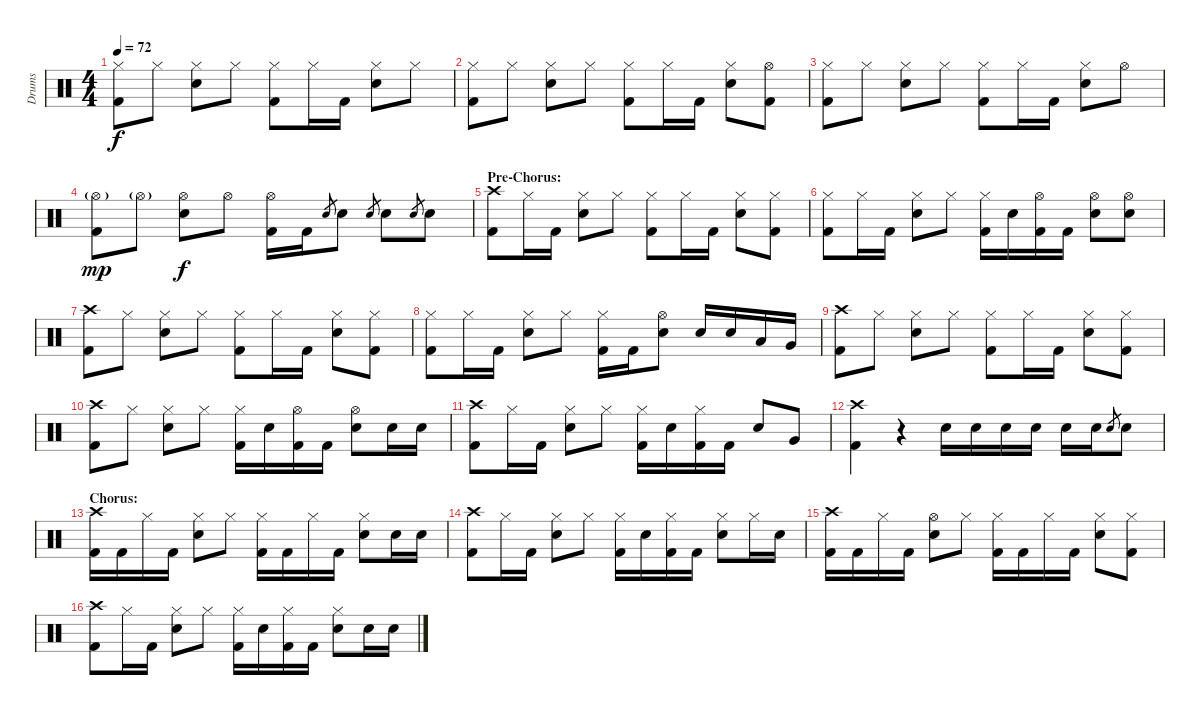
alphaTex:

\track ("Drums" "Drums") {instrument percussion}
\staff {score}
\articulation defaults
\ts (4 4)
\tempo 72
\clef neutral
\ks c
("Hi-Hat (closed)" "Kick (hit) 2").8{dy f} "Hi-Hat (closed)".8 ("Hi-Hat (closed)" "Electric Snare (hit)").8 "Hi-Hat (closed)".8 ("Hi-Hat (closed)" "Kick (hit) 2").8 "Hi-Hat (closed)".16 "Kick (hit) 2".16 ("Hi-Hat (closed)" "Electric Snare (hit)").8 "Hi-Hat (closed)".8 |
("Hi-Hat (closed)" "Kick (hit) 2").8 "Hi-Hat (closed)".8 ("Hi-Hat (closed)" "Electric Snare (hit)").8 "Hi-Hat (closed)".8 ("Hi-Hat (closed)" "Kick (hit) 2").8 "Hi-Hat (closed)".16 "Kick (hit) 2".16 ("Hi-Hat (closed)" "Electric Snare (hit)").8 ("Hi-Hat (open)" "Kick (hit) 2").8 |
("Hi-Hat (closed)" "Kick (hit) 2").8 "Hi-Hat (closed)".8 ("Hi-Hat (closed)" "Electric Snare (hit)").8 "Hi-Hat (closed)".8 ("Hi-Hat (closed)" "Kick (hit) 2").8 "Hi-Hat (closed)".16 "Kick (hit) 2".16 ("Hi-Hat (closed)" "Electric Snare (hit)").8 "Hi-Hat (open)".8 |
("Hi-Hat (open)"{g} "Kick (hit) 2").8{dy mp} "Hi-Hat (open)"{g}.8 ("Hi-Hat (open)" "Electric Snare (hit)").8{dy f} "Hi-Hat (open)".8 ("Hi-Hat (open)" "Kick (hit) 2").16 "Kick (hit) 2".16 "Electric Snare (hit)".8{gr} "Electric Snare (hit)".8 "Electric Snare (hit)".8{gr} "Electric Snare (hit)".8 "Electric Snare (hit)".8{gr} "Electric Snare (hit)".8 |
\section ("" "Pre-Chorus:")
("Crash high (hit)" "Kick (hit) 2").8 "Hi-Hat (closed)".16 "Kick (hit) 2".16 ("Hi-Hat (closed)" "Electric Snare (hit)").8 "Hi-Hat (closed)".8 ("Hi-Hat (closed)" "Kick (hit) 2").8 "Hi-Hat (closed)".16 "Kick (hit) 2".16 ("Hi-Hat (closed)" "Electric Snare (hit)").8 ("Hi-Hat (closed)" "Kick (hit) 2").8 |
("Hi-Hat (closed)" "Kick (hit) 2").8 "Hi-Hat (closed)".16 "Kick (hit) 2".16 ("Hi-Hat (closed)" "Electric Snare (hit)").8 "Hi-Hat (closed)".8 ("Hi-Hat (closed)" "Kick (hit) 2").16 "Electric Snare (hit)".16 ("Hi-Hat (open)" "Kick (hit) 2").16 "Kick (hit) 2".16 ("Hi-Hat (open)" "Electric Snare (hit)").8 ("Hi-Hat (open)" "Electric Snare (hit)").8 |
("Crash high (hit)" "Kick (hit) 2").8 "Hi-Hat (closed)".8 ("Hi-Hat (closed)" "Electric Snare (hit)").8 "Hi-Hat (closed)".8 ("Hi-Hat (closed)" "Kick (hit) 2").8 "Hi-Hat (closed)".16 "Kick (hit) 2".16 ("Hi-Hat (closed)" "Electric Snare (hit)").8 ("Hi-Hat (closed)" "Kick (hit) 2").8 |
("Hi-Hat (closed)" "Kick (hit) 2").8 "Hi-Hat (closed)".16 "Kick (hit) 2".16 ("Hi-Hat (closed)" "Electric Snare (hit)").8 "Hi-Hat (closed)".8 ("Hi-Hat (closed)" "Kick (hit) 2").16 "Kick (hit) 2".16 ("Hi-Hat (open)" "Electric Snare (hit)").8 "Electric Snare (hit)".16 "Electric Snare (hit)".16 "Low Tom (hit)".16 "Very Low Tom (hit)".16 |
("Crash high (hit)" "Kick (hit) 2").8 "Hi-Hat (closed)".8 ("Hi-Hat (closed)" "Electric Snare (hit)").8 "Hi-Hat (closed)".8 ("Hi-Hat (closed)" "Kick (hit) 2").8 "Hi-Hat (closed)".16 "Kick (hit) 2".16 ("Hi-Hat (closed)" "Electric Snare (hit)").8 ("Hi-Hat (closed)" "Kick (hit) 2").8 |
("Crash high (hit)" "Kick (hit) 2").8 "Hi-Hat (closed)".8 ("Hi-Hat (closed)" "Electric Snare (hit)").8 "Hi-Hat (closed)".8 ("Hi-Hat (closed)" "Kick (hit) 2").16 "Electric Snare (hit)".16 ("Hi-Hat (open)" "Kick (hit) 2").16 "Kick (hit) 2".16 ("Hi-Hat (open)" "Electric Snare (hit)").8 "Electric Snare (hit)".16 "Electric Snare (hit)".16 |
("Crash high (hit)" "Kick (hit) 2").8 "Hi-Hat (closed)".16 "Kick (hit) 2".16 ("Hi-Hat (closed)" "Electric Snare (hit)").8 "Hi-Hat (closed)".8 ("Hi-Hat (closed)" "Kick (hit) 2").16 "Electric Snare (hit)".16 ("Hi-Hat (closed)" "Kick (hit) 2").16 "Kick (hit) 2".16 "Electric Snare (hit)".8 "Very Low Tom (hit)".8 |
("Crash high (hit)" "Kick (hit) 2").4 r.4 "Electric Snare (hit)".16 "Electric Snare (hit)".16 "Electric Snare (hit)".16 "Electric Snare (hit)".16 "Electric Snare (hit)".16 "Electric Snare (hit)".16 "Electric Snare (hit)".8{gr} "Electric Snare (hit)".8 |
\section ("" "Chorus:")
("Crash high (hit)" "Kick (hit) 2").16 "Kick (hit) 2".16 "Hi-Hat (closed)".16 "Kick (hit) 2".16 ("Hi-Hat (closed)" "Electric Snare (hit)").8 "Hi-Hat (closed)".8 ("Hi-Hat (closed)" "Kick (hit) 2").16 "Kick (hit) 2".16 "Hi-Hat (closed)".16 "Kick (hit) 2".16 ("Hi-Hat (closed)" "Electric Snare (hit)").8 "Electric Snare (hit)".16 "Electric Snare (hit)".16 |
("Crash high (hit)" "Kick (hit) 2").8 "Hi-Hat (closed)".16 "Kick (hit) 2".16 ("Hi-Hat (closed)" "Electric Snare (hit)").8 "Hi-Hat (closed)".8 ("Hi-Hat (closed)" "Kick (hit) 2").16 "Electric Snare (hit)".16 ("Hi-Hat (closed)" "Kick (hit) 2").16 "Kick (hit) 2".16 ("Hi-Hat (closed)" "Electric Snare (hit)").8 "Hi-Hat (closed)".16 "Electric Snare (hit)".16 |
("Crash high (hit)" "Kick (hit) 2").16 "Kick (hit) 2".16 "Hi-Hat (closed)".16 "Kick (hit) 2".16 ("Hi-Hat (open)" "Electric Snare (hit)").8 "Hi-Hat (closed)".8 ("Hi-Hat (closed)" "Kick (hit) 2").16 "Kick (hit) 2".16 "Hi-Hat (closed)".16 "Kick (hit) 2".16 ("Hi-Hat (closed)" "Electric Snare (hit)").8 ("Hi-Hat (closed)" "Kick (hit) 2").8 |
("Crash high (hit)" "Kick (hit) 2").8 "Hi-Hat (closed)".16 "Kick (hit) 2".16 ("Hi-Hat (closed)" "Electric Snare (hit)").8 "Hi-Hat (closed)".8 ("Hi-Hat (closed)" "Kick (hit) 2").16 "Electric Snare (hit)".16 ("Hi-Hat (closed)" "Kick (hit) 2").16 "Kick (hit) 2".16 ("Hi-Hat (closed)" "Electric Snare (hit)").8 "Electric Snare (hit)".16 "Electric Snare (hit)".16
